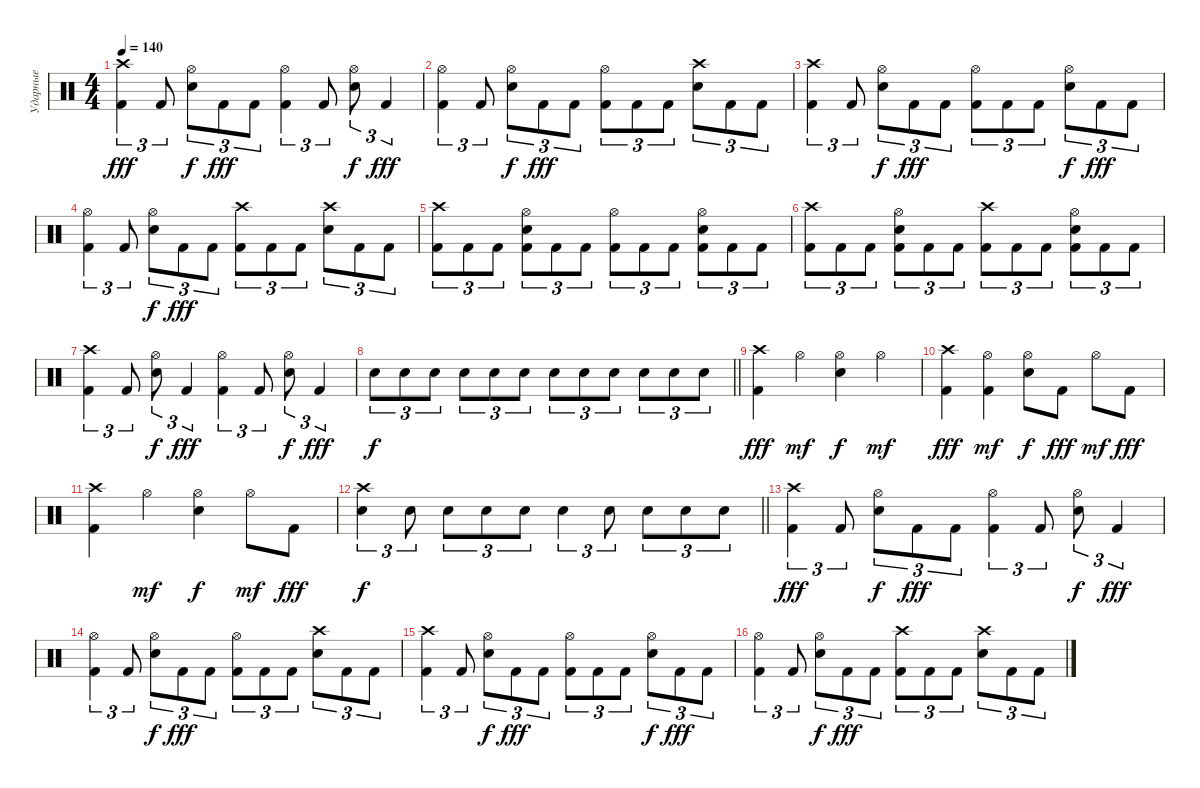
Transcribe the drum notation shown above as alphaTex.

\track ("Ударные" "Ударные") {instrument percussion}
\staff {score}
\articulation defaults
\ts (4 4)
\tempo 140
\clef neutral
\ks c
("Kick (hit) 2" "Crash high (hit)").4{tu (3 2) dy fff} "Kick (hit) 2".8{tu (3 2)} ("Snare (hit) 2" "Hi-Hat (open)").8{tu (3 2) dy f} "Kick (hit) 2".8{tu (3 2) dy fff} "Kick (hit) 2".8{tu (3 2)} ("Kick (hit) 2" "Hi-Hat (open)").4{tu (3 2)} "Kick (hit) 2".8{tu (3 2)} ("Snare (hit) 2" "Hi-Hat (open)").8{tu (3 2) dy f} "Kick (hit) 2".4{tu (3 2) dy fff} |
("Kick (hit) 2" "Hi-Hat (open)").4{tu (3 2)} "Kick (hit) 2".8{tu (3 2)} ("Snare (hit) 2" "Hi-Hat (open)").8{tu (3 2) dy f} "Kick (hit) 2".8{tu (3 2) dy fff} "Kick (hit) 2".8{tu (3 2)} ("Kick (hit) 2" "Hi-Hat (open)").8{tu (3 2)} "Kick (hit) 2".8{tu (3 2)} "Kick (hit) 2".8{tu (3 2)} ("Snare (hit) 2" "Crash high (hit)").8{tu (3 2)} "Kick (hit) 2".8{tu (3 2)} "Kick (hit) 2".8{tu (3 2)} |
("Kick (hit) 2" "Crash high (hit)").4{tu (3 2)} "Kick (hit) 2".8{tu (3 2)} ("Snare (hit) 2" "Hi-Hat (open)").8{tu (3 2) dy f} "Kick (hit) 2".8{tu (3 2) dy fff} "Kick (hit) 2".8{tu (3 2)} ("Kick (hit) 2" "Hi-Hat (open)").8{tu (3 2)} "Kick (hit) 2".8{tu (3 2)} "Kick (hit) 2".8{tu (3 2)} ("Snare (hit) 2" "Hi-Hat (open)").8{tu (3 2) dy f} "Kick (hit) 2".8{tu (3 2) dy fff} "Kick (hit) 2".8{tu (3 2)} |
("Kick (hit) 2" "Hi-Hat (open)").4{tu (3 2)} "Kick (hit) 2".8{tu (3 2)} ("Snare (hit) 2" "Hi-Hat (open)").8{tu (3 2) dy f} "Kick (hit) 2".8{tu (3 2) dy fff} "Kick (hit) 2".8{tu (3 2)} ("Kick (hit) 2" "Crash high (hit)").8{tu (3 2)} "Kick (hit) 2".8{tu (3 2)} "Kick (hit) 2".8{tu (3 2)} ("Snare (hit) 2" "Crash high (hit)").8{tu (3 2)} "Kick (hit) 2".8{tu (3 2)} "Kick (hit) 2".8{tu (3 2)} |
("Kick (hit) 2" "Crash high (hit)").8{tu (3 2)} "Kick (hit) 2".8{tu (3 2)} "Kick (hit) 2".8{tu (3 2)} ("Kick (hit) 2" "Snare (hit) 2" "Hi-Hat (open)").8{tu (3 2)} "Kick (hit) 2".8{tu (3 2)} "Kick (hit) 2".8{tu (3 2)} ("Kick (hit) 2" "Hi-Hat (open)").8{tu (3 2)} "Kick (hit) 2".8{tu (3 2)} "Kick (hit) 2".8{tu (3 2)} ("Kick (hit) 2" "Snare (hit) 2" "Hi-Hat (open)").8{tu (3 2)} "Kick (hit) 2".8{tu (3 2)} "Kick (hit) 2".8{tu (3 2)} |
("Kick (hit) 2" "Crash high (hit)").8{tu (3 2)} "Kick (hit) 2".8{tu (3 2)} "Kick (hit) 2".8{tu (3 2)} ("Kick (hit) 2" "Snare (hit) 2" "Hi-Hat (open)").8{tu (3 2)} "Kick (hit) 2".8{tu (3 2)} "Kick (hit) 2".8{tu (3 2)} ("Kick (hit) 2" "Crash high (hit)").8{tu (3 2)} "Kick (hit) 2".8{tu (3 2)} "Kick (hit) 2".8{tu (3 2)} ("Kick (hit) 2" "Snare (hit) 2" "Hi-Hat (open)").8{tu (3 2)} "Kick (hit) 2".8{tu (3 2)} "Kick (hit) 2".8{tu (3 2)} |
("Kick (hit) 2" "Crash high (hit)").4{tu (3 2)} "Kick (hit) 2".8{tu (3 2)} ("Snare (hit) 2" "Hi-Hat (open)").8{tu (3 2) dy f} "Kick (hit) 2".4{tu (3 2) dy fff} ("Kick (hit) 2" "Hi-Hat (open)").4{tu (3 2)} "Kick (hit) 2".8{tu (3 2)} ("Snare (hit) 2" "Hi-Hat (open)").8{tu (3 2) dy f} "Kick (hit) 2".4{tu (3 2) dy fff} |
\barLineRight lightlight "Snare (hit) 2".8{tu (3 2) dy f} "Snare (hit) 2".8{tu (3 2)} "Snare (hit) 2".8{tu (3 2)} "Snare (hit) 2".8{tu (3 2)} "Snare (hit) 2".8{tu (3 2)} "Snare (hit) 2".8{tu (3 2)} "Snare (hit) 2".8{tu (3 2)} "Snare (hit) 2".8{tu (3 2)} "Snare (hit) 2".8{tu (3 2)} "Snare (hit) 2".8{tu (3 2)} "Snare (hit) 2".8{tu (3 2)} "Snare (hit) 2".8{tu (3 2)}
|
("Kick (hit) 2" "Crash high (hit)").4{dy fff} "Hi-Hat (open)".4{dy mf} ("Snare (hit) 2" "Hi-Hat (open)").4{dy f} "Hi-Hat (open)".4{dy mf} |
("Kick (hit) 2" "Crash high (hit)").4{dy fff} ("Kick (hit) 2" "Hi-Hat (open)").4{dy mf} ("Snare (hit) 2" "Hi-Hat (open)").8{dy f} "Kick (hit) 2".8{dy fff} "Hi-Hat (open)".8{dy mf} "Kick (hit) 2".8{dy fff} |
("Kick (hit) 2" "Crash high (hit)").4 "Hi-Hat (open)".4{dy mf} ("Snare (hit) 2" "Hi-Hat (open)").4{dy f} "Hi-Hat (open)".8{dy mf} "Kick (hit) 2".8{dy fff} |
\barLineRight lightlight
("Snare (hit) 2" "Crash high (hit)").4{tu (3 2) dy f} "Snare (hit) 2".8{tu (3 2)} "Snare (hit) 2".8{tu (3 2)} "Snare (hit) 2".8{tu (3 2)} "Snare (hit) 2".8{tu (3 2)} "Snare (hit) 2".4{tu (3 2)} "Snare (hit) 2".8{tu (3 2)} "Snare (hit) 2".8{tu (3 2)} "Snare (hit) 2".8{tu (3 2)} "Snare (hit) 2".8{tu (3 2)} |
("Kick (hit) 2" "Crash high (hit)").4{tu (3 2) dy fff} "Kick (hit) 2".8{tu (3 2)} ("Snare (hit) 2" "Hi-Hat (open)").8{tu (3 2) dy f} "Kick (hit) 2".8{tu (3 2) dy fff} "Kick (hit) 2".8{tu (3 2)} ("Kick (hit) 2" "Hi-Hat (open)").4{tu (3 2)} "Kick (hit) 2".8{tu (3 2)} ("Snare (hit) 2" "Hi-Hat (open)").8{tu (3 2) dy f} "Kick (hit) 2".4{tu (3 2) dy fff} |
("Kick (hit) 2" "Hi-Hat (open)").4{tu (3 2)} "Kick (hit) 2".8{tu (3 2)} ("Snare (hit) 2" "Hi-Hat (open)").8{tu (3 2) dy f} "Kick (hit) 2".8{tu (3 2) dy fff} "Kick (hit) 2".8{tu (3 2)} ("Kick (hit) 2" "Hi-Hat (open)").8{tu (3 2)} "Kick (hit) 2".8{tu (3 2)} "Kick (hit) 2".8{tu (3 2)} ("Snare (hit) 2" "Crash high (hit)").8{tu (3 2)} "Kick (hit) 2".8{tu (3 2)} "Kick (hit) 2".8{tu (3 2)} |
("Kick (hit) 2" "Crash high (hit)").4{tu (3 2)} "Kick (hit) 2".8{tu (3 2)} ("Snare (hit) 2" "Hi-Hat (open)").8{tu (3 2) dy f} "Kick (hit) 2".8{tu (3 2) dy fff} "Kick (hit) 2".8{tu (3 2)} ("Kick (hit) 2" "Hi-Hat (open)").8{tu (3 2)} "Kick (hit) 2".8{tu (3 2)} "Kick (hit) 2".8{tu (3 2)} ("Snare (hit) 2" "Hi-Hat (open)").8{tu (3 2) dy f} "Kick (hit) 2".8{tu (3 2) dy fff} "Kick (hit) 2".8{tu (3 2)} |
("Kick (hit) 2" "Hi-Hat (open)").4{tu (3 2)} "Kick (hit) 2".8{tu (3 2)} ("Snare (hit) 2" "Hi-Hat (open)").8{tu (3 2) dy f} "Kick (hit) 2".8{tu (3 2) dy fff} "Kick (hit) 2".8{tu (3 2)} ("Kick (hit) 2" "Crash high (hit)").8{tu (3 2)} "Kick (hit) 2".8{tu (3 2)} "Kick (hit) 2".8{tu (3 2)} ("Snare (hit) 2" "Crash high (hit)").8{tu (3 2)} "Kick (hit) 2".8{tu (3 2)} "Kick (hit) 2".8{tu (3 2)}
